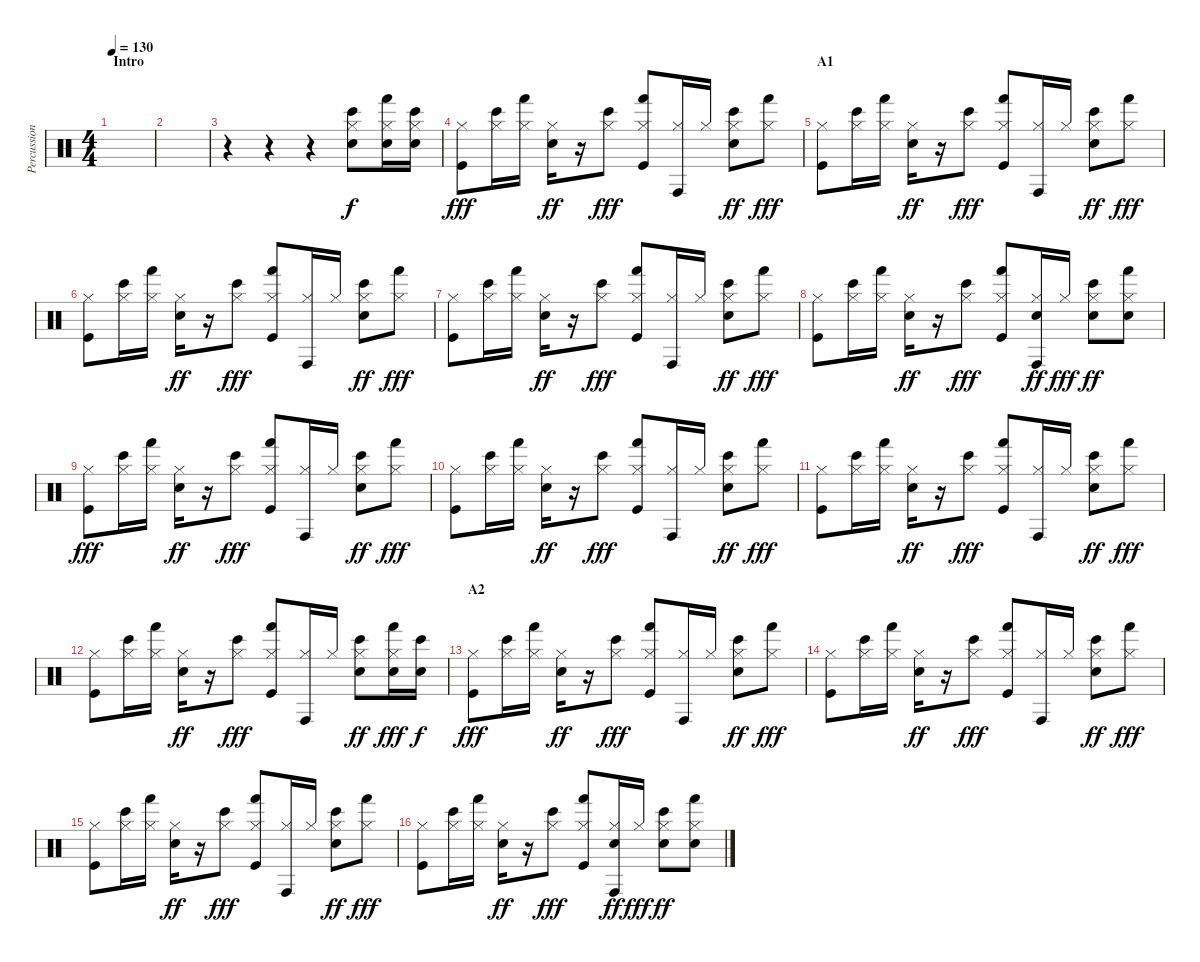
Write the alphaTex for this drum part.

\track ("Percussion" "Percussion") {instrument percussion}
\staff {score}
\articulation defaults
\ts (4 4)
\section ("" "Intro")
\tempo 130
\clef neutral
\ks c
|
|
r.4 r.4 r.4 ("Hi-Hat (closed)" "Bongo High (hit)" "Electric Snare (hit)").8 ("Hi-Hat (closed)" "Hand (hit)" "Electric Snare (hit)").16 ("Hi-Hat (closed)" "Bongo High (hit)" "Electric Snare (hit)").16{dy f} |
("Hi-Hat (closed)" "Kick (hit)").8{dy fff} ("Hi-Hat (closed)" "Bongo High (hit)").16 ("Hi-Hat (closed)" "Hand (hit)").16 ("Hi-Hat (closed)" "Electric Snare (hit)").16{dy ff} r.16 ("Hi-Hat (closed)" "Bongo High (hit)").8{dy fff} ("Hi-Hat (closed)" "Hand (hit)" "Kick (hit)").8 ("Hi-Hat (closed)" "Conga high (hit)").16 "Hi-Hat (closed)".16 ("Hi-Hat (closed)" "Bongo High (hit)" "Electric Snare (hit)").8{dy ff} ("Hi-Hat (closed)" "Hand (hit)").8{dy fff} |
\section ("" "A1")
("Hi-Hat (closed)" "Kick (hit)").8 ("Hi-Hat (closed)" "Bongo High (hit)").16 ("Hi-Hat (closed)" "Hand (hit)").16 ("Hi-Hat (closed)" "Electric Snare (hit)").16{dy ff} r.16 ("Hi-Hat (closed)" "Bongo High (hit)").8{dy fff} ("Hi-Hat (closed)" "Hand (hit)" "Kick (hit)").8 ("Hi-Hat (closed)" "Conga high (hit)").16 "Hi-Hat (closed)".16 ("Hi-Hat (closed)" "Bongo High (hit)" "Electric Snare (hit)").8{dy ff} ("Hi-Hat (closed)" "Hand (hit)").8{dy fff} |
("Hi-Hat (closed)" "Kick (hit)").8 ("Hi-Hat (closed)" "Bongo High (hit)").16 ("Hi-Hat (closed)" "Hand (hit)").16 ("Hi-Hat (closed)" "Electric Snare (hit)").16{dy ff} r.16 ("Hi-Hat (closed)" "Bongo High (hit)").8{dy fff} ("Hi-Hat (closed)" "Hand (hit)" "Kick (hit)").8 ("Hi-Hat (closed)" "Conga high (hit)").16 "Hi-Hat (closed)".16 ("Hi-Hat (closed)" "Bongo High (hit)" "Electric Snare (hit)").8{dy ff} ("Hi-Hat (closed)" "Hand (hit)").8{dy fff} |
("Hi-Hat (closed)" "Kick (hit)").8 ("Hi-Hat (closed)" "Bongo High (hit)").16 ("Hi-Hat (closed)" "Hand (hit)").16 ("Hi-Hat (closed)" "Electric Snare (hit)").16{dy ff} r.16 ("Hi-Hat (closed)" "Bongo High (hit)").8{dy fff} ("Hi-Hat (closed)" "Hand (hit)" "Kick (hit)").8 ("Hi-Hat (closed)" "Conga high (hit)").16 "Hi-Hat (closed)".16 ("Hi-Hat (closed)" "Bongo High (hit)" "Electric Snare (hit)").8{dy ff} ("Hi-Hat (closed)" "Hand (hit)").8{dy fff} |
("Hi-Hat (closed)" "Kick (hit)").8 ("Hi-Hat (closed)" "Bongo High (hit)").16 ("Hi-Hat (closed)" "Hand (hit)").16 ("Hi-Hat (closed)" "Electric Snare (hit)").16{dy ff} r.16 ("Hi-Hat (closed)" "Bongo High (hit)").8{dy fff} ("Hi-Hat (closed)" "Hand (hit)" "Kick (hit)").8 ("Hi-Hat (closed)" "Conga high (hit)" "Electric Snare (hit)").16{dy ff} "Hi-Hat (closed)".16{dy fff} ("Hi-Hat (closed)" "Bongo High (hit)" "Electric Snare (hit)").8{dy ff} ("Hi-Hat (closed)" "Hand (hit)" "Electric Snare (hit)").8 |
("Hi-Hat (closed)" "Kick (hit)").8{dy fff} ("Hi-Hat (closed)" "Bongo High (hit)").16 ("Hi-Hat (closed)" "Hand (hit)").16 ("Hi-Hat (closed)" "Electric Snare (hit)").16{dy ff} r.16 ("Hi-Hat (closed)" "Bongo High (hit)").8{dy fff} ("Hi-Hat (closed)" "Hand (hit)" "Kick (hit)").8 ("Hi-Hat (closed)" "Conga high (hit)").16 "Hi-Hat (closed)".16 ("Hi-Hat (closed)" "Bongo High (hit)" "Electric Snare (hit)").8{dy ff} ("Hi-Hat (closed)" "Hand (hit)").8{dy fff} |
("Hi-Hat (closed)" "Kick (hit)").8 ("Hi-Hat (closed)" "Bongo High (hit)").16 ("Hi-Hat (closed)" "Hand (hit)").16 ("Hi-Hat (closed)" "Electric Snare (hit)").16{dy ff} r.16 ("Hi-Hat (closed)" "Bongo High (hit)").8{dy fff} ("Hi-Hat (closed)" "Hand (hit)" "Kick (hit)").8 ("Hi-Hat (closed)" "Conga high (hit)").16 "Hi-Hat (closed)".16 ("Hi-Hat (closed)" "Bongo High (hit)" "Electric Snare (hit)").8{dy ff} ("Hi-Hat (closed)" "Hand (hit)").8{dy fff} |
("Hi-Hat (closed)" "Kick (hit)").8 ("Hi-Hat (closed)" "Bongo High (hit)").16 ("Hi-Hat (closed)" "Hand (hit)").16 ("Hi-Hat (closed)" "Electric Snare (hit)").16{dy ff} r.16 ("Hi-Hat (closed)" "Bongo High (hit)").8{dy fff} ("Hi-Hat (closed)" "Hand (hit)" "Kick (hit)").8 ("Hi-Hat (closed)" "Conga high (hit)").16 "Hi-Hat (closed)".16 ("Hi-Hat (closed)" "Bongo High (hit)" "Electric Snare (hit)").8{dy ff} ("Hi-Hat (closed)" "Hand (hit)").8{dy fff} |
("Hi-Hat (closed)" "Kick (hit)").8 ("Hi-Hat (closed)" "Bongo High (hit)").16 ("Hi-Hat (closed)" "Hand (hit)").16 ("Hi-Hat (closed)" "Electric Snare (hit)").16{dy ff} r.16 ("Hi-Hat (closed)" "Bongo High (hit)").8{dy fff} ("Hi-Hat (closed)" "Hand (hit)" "Kick (hit)").8 ("Hi-Hat (closed)" "Conga high (hit)").16 "Hi-Hat (closed)".16 ("Hi-Hat (closed)" "Bongo High (hit)" "Electric Snare (hit)").8{dy ff} ("Hi-Hat (closed)" "Hand (hit)" "Electric Snare (hit)").16{dy fff} ("Bongo High (hit)" "Electric Snare (hit)").16{dy f} |
\section ("" "A2")
("Hi-Hat (closed)" "Kick (hit)").8{dy fff} ("Hi-Hat (closed)" "Bongo High (hit)").16 ("Hi-Hat (closed)" "Hand (hit)").16 ("Hi-Hat (closed)" "Electric Snare (hit)").16{dy ff} r.16 ("Hi-Hat (closed)" "Bongo High (hit)").8{dy fff} ("Hi-Hat (closed)" "Hand (hit)" "Kick (hit)").8 ("Hi-Hat (closed)" "Conga high (hit)").16 "Hi-Hat (closed)".16 ("Hi-Hat (closed)" "Bongo High (hit)" "Electric Snare (hit)").8{dy ff} ("Hi-Hat (closed)" "Hand (hit)").8{dy fff} |
("Hi-Hat (closed)" "Kick (hit)").8 ("Hi-Hat (closed)" "Bongo High (hit)").16 ("Hi-Hat (closed)" "Hand (hit)").16 ("Hi-Hat (closed)" "Electric Snare (hit)").16{dy ff} r.16 ("Hi-Hat (closed)" "Bongo High (hit)").8{dy fff} ("Hi-Hat (closed)" "Hand (hit)" "Kick (hit)").8 ("Hi-Hat (closed)" "Conga high (hit)").16 "Hi-Hat (closed)".16 ("Hi-Hat (closed)" "Bongo High (hit)" "Electric Snare (hit)").8{dy ff} ("Hi-Hat (closed)" "Hand (hit)").8{dy fff} |
("Hi-Hat (closed)" "Kick (hit)").8 ("Hi-Hat (closed)" "Bongo High (hit)").16 ("Hi-Hat (closed)" "Hand (hit)").16 ("Hi-Hat (closed)" "Electric Snare (hit)").16{dy ff} r.16 ("Hi-Hat (closed)" "Bongo High (hit)").8{dy fff} ("Hi-Hat (closed)" "Hand (hit)" "Kick (hit)").8 ("Hi-Hat (closed)" "Conga high (hit)").16 "Hi-Hat (closed)".16 ("Hi-Hat (closed)" "Bongo High (hit)" "Electric Snare (hit)").8{dy ff} ("Hi-Hat (closed)" "Hand (hit)").8{dy fff} |
("Hi-Hat (closed)" "Kick (hit)").8 ("Hi-Hat (closed)" "Bongo High (hit)").16 ("Hi-Hat (closed)" "Hand (hit)").16 ("Hi-Hat (closed)" "Electric Snare (hit)").16{dy ff} r.16 ("Hi-Hat (closed)" "Bongo High (hit)").8{dy fff} ("Hi-Hat (closed)" "Hand (hit)" "Kick (hit)").8 ("Hi-Hat (closed)" "Conga high (hit)" "Electric Snare (hit)").16{dy ff} "Hi-Hat (closed)".16{dy fff} ("Hi-Hat (closed)" "Bongo High (hit)" "Electric Snare (hit)").8{dy ff} ("Hi-Hat (closed)" "Hand (hit)" "Electric Snare (hit)").8
